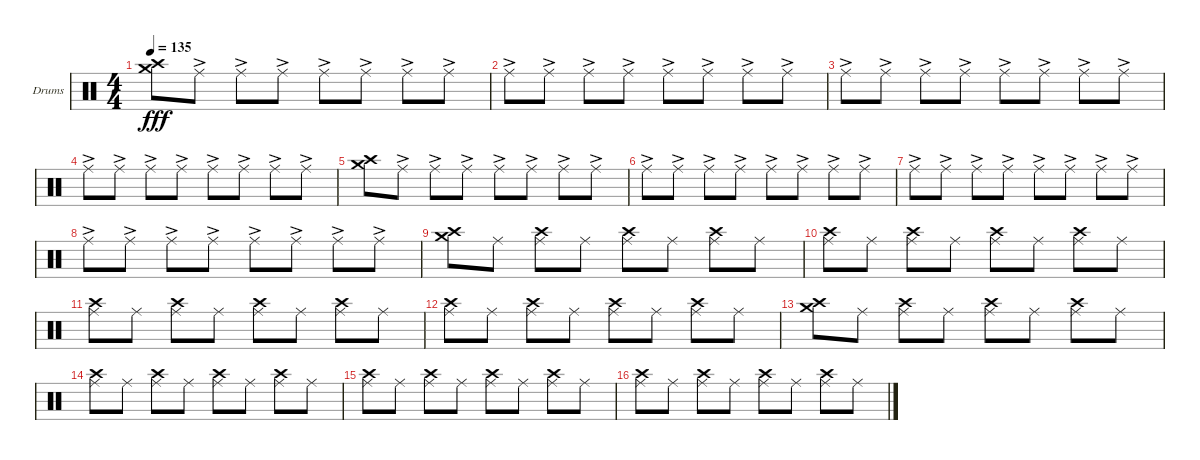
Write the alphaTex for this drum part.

\defaultSystemsLayout 4
\bracketExtendMode groupsimilarinstruments
\firstSystemTrackNameOrientation horizontal
\otherSystemsTrackNameOrientation horizontal
\track ("Helders" "Drums") {instrument percussion}
\staff {score}
\articulation defaults
\ts (4 4)
\tempo 135
\clef neutral
\ks c
("Crash high (hit)" "Crash medium (hit)").8{dy fff} "Ride (middle)"{ac}.8 "Ride (middle)"{ac}.8 "Ride (middle)"{ac}.8 "Ride (middle)"{ac}.8 "Ride (middle)"{ac}.8 "Ride (middle)"{ac}.8 "Ride (middle)"{ac}.8 |
"Ride (middle)"{ac}.8 "Ride (middle)"{ac}.8 "Ride (middle)"{ac}.8 "Ride (middle)"{ac}.8 "Ride (middle)"{ac}.8 "Ride (middle)"{ac}.8 "Ride (middle)"{ac}.8 "Ride (middle)"{ac}.8 |
"Ride (middle)"{ac}.8 "Ride (middle)"{ac}.8 "Ride (middle)"{ac}.8 "Ride (middle)"{ac}.8 "Ride (middle)"{ac}.8 "Ride (middle)"{ac}.8 "Ride (middle)"{ac}.8 "Ride (middle)"{ac}.8 |
"Ride (middle)"{ac}.8 "Ride (middle)"{ac}.8 "Ride (middle)"{ac}.8 "Ride (middle)"{ac}.8 "Ride (middle)"{ac}.8 "Ride (middle)"{ac}.8 "Ride (middle)"{ac}.8 "Ride (middle)"{ac}.8 |
("Crash high (hit)" "Crash medium (hit)").8 "Ride (middle)"{ac}.8 "Ride (middle)"{ac}.8 "Ride (middle)"{ac}.8 "Ride (middle)"{ac}.8 "Ride (middle)"{ac}.8 "Ride (middle)"{ac}.8 "Ride (middle)"{ac}.8 |
"Ride (middle)"{ac}.8 "Ride (middle)"{ac}.8 "Ride (middle)"{ac}.8 "Ride (middle)"{ac}.8 "Ride (middle)"{ac}.8 "Ride (middle)"{ac}.8 "Ride (middle)"{ac}.8 "Ride (middle)"{ac}.8 |
"Ride (middle)"{ac}.8 "Ride (middle)"{ac}.8 "Ride (middle)"{ac}.8 "Ride (middle)"{ac}.8 "Ride (middle)"{ac}.8 "Ride (middle)"{ac}.8 "Ride (middle)"{ac}.8 "Ride (middle)"{ac}.8 |
"Ride (middle)"{ac}.8 "Ride (middle)"{ac}.8 "Ride (middle)"{ac}.8 "Ride (middle)"{ac}.8 "Ride (middle)"{ac}.8 "Ride (middle)"{ac}.8 "Ride (middle)"{ac}.8 "Ride (middle)"{ac}.8 |
("Crash high (hit)" "Crash medium (hit)").8 "Ride (middle)".8 ("Ride (middle)" "Crash high (hit)").8 "Ride (middle)".8 ("Ride (middle)" "Crash high (hit)").8 "Ride (middle)".8 ("Ride (middle)" "Crash high (hit)").8 "Ride (middle)".8 |
("Ride (middle)" "Crash high (hit)").8 "Ride (middle)".8 ("Ride (middle)" "Crash high (hit)").8 "Ride (middle)".8 ("Ride (middle)" "Crash high (hit)").8 "Ride (middle)".8 ("Ride (middle)" "Crash high (hit)").8 "Ride (middle)".8 |
("Ride (middle)" "Crash high (hit)").8 "Ride (middle)".8 ("Ride (middle)" "Crash high (hit)").8 "Ride (middle)".8 ("Ride (middle)" "Crash high (hit)").8 "Ride (middle)".8 ("Ride (middle)" "Crash high (hit)").8 "Ride (middle)".8 |
("Ride (middle)" "Crash high (hit)").8 "Ride (middle)".8 ("Ride (middle)" "Crash high (hit)").8 "Ride (middle)".8 ("Ride (middle)" "Crash high (hit)").8 "Ride (middle)".8 ("Ride (middle)" "Crash high (hit)").8 "Ride (middle)".8 |
("Crash high (hit)" "Crash medium (hit)").8 "Ride (middle)".8 ("Ride (middle)" "Crash high (hit)").8 "Ride (middle)".8 ("Ride (middle)" "Crash high (hit)").8 "Ride (middle)".8 ("Ride (middle)" "Crash high (hit)").8 "Ride (middle)".8 |
("Ride (middle)" "Crash high (hit)").8 "Ride (middle)".8 ("Ride (middle)" "Crash high (hit)").8 "Ride (middle)".8 ("Ride (middle)" "Crash high (hit)").8 "Ride (middle)".8 ("Ride (middle)" "Crash high (hit)").8 "Ride (middle)".8 |
("Ride (middle)" "Crash high (hit)").8 "Ride (middle)".8 ("Ride (middle)" "Crash high (hit)").8 "Ride (middle)".8 ("Ride (middle)" "Crash high (hit)").8 "Ride (middle)".8 ("Ride (middle)" "Crash high (hit)").8 "Ride (middle)".8 |
("Ride (middle)" "Crash high (hit)").8 "Ride (middle)".8 ("Ride (middle)" "Crash high (hit)").8 "Ride (middle)".8 ("Ride (middle)" "Crash high (hit)").8 "Ride (middle)".8 ("Ride (middle)" "Crash high (hit)").8 "Ride (middle)".8
